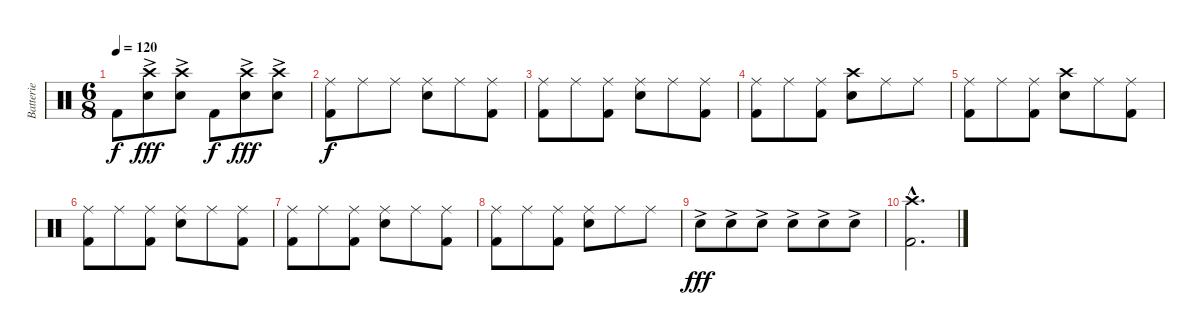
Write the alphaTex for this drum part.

\track ("Batterie" "Batterie") {instrument percussion}
\staff {score}
\articulation defaults
\ts (6 8)
\tempo 120
\clef neutral
\ks c "Kick (hit) 2".8{dy f}
("Crash high (hit)"{ac} "Snare (hit) 2").8{dy fff} ("Crash high (hit)"{ac} "Snare (hit) 2").8 "Kick (hit) 2".8{dy f} ("Crash high (hit)"{ac} "Snare (hit) 2").8{dy fff} ("Crash high (hit)"{ac} "Snare (hit) 2").8 |
("Ride (middle)" "Kick (hit) 2").8{dy f} "Ride (middle)".8 "Ride (middle)".8 ("Ride (middle)" "Snare (hit) 2").8 "Ride (middle)".8 ("Ride (middle)" "Kick (hit) 2").8 |
("Ride (middle)" "Kick (hit) 2").8 "Ride (middle)".8 ("Ride (middle)" "Kick (hit) 2").8 ("Ride (middle)" "Snare (hit) 2").8 "Ride (middle)".8 ("Ride (middle)" "Kick (hit) 2").8 |
("Ride (middle)" "Kick (hit) 2").8 "Ride (middle)".8 ("Ride (middle)" "Kick (hit) 2").8 ("Crash high (hit)" "Snare (hit) 2").8 "Ride (middle)".8 "Ride (middle)".8 |
("Ride (middle)" "Kick (hit) 2").8 "Ride (middle)".8 ("Ride (middle)" "Kick (hit) 2").8 ("Crash high (hit)" "Snare (hit) 2").8 "Ride (middle)".8 ("Ride (middle)" "Kick (hit) 2").8 |
("Ride (middle)" "Kick (hit) 2").8 "Ride (middle)".8 ("Ride (middle)" "Kick (hit) 2").8 ("Ride (middle)" "Snare (hit) 2").8 "Ride (middle)".8 ("Ride (middle)" "Kick (hit) 2").8 |
("Ride (middle)" "Kick (hit) 2").8 "Ride (middle)".8 ("Ride (middle)" "Kick (hit) 2").8 ("Ride (middle)" "Snare (hit) 2").8 "Ride (middle)".8 ("Ride (middle)" "Kick (hit) 2").8 |
("Ride (middle)" "Kick (hit) 2").8 "Ride (middle)".8 ("Ride (middle)" "Kick (hit) 2").8 ("Ride (middle)" "Snare (hit) 2").8 "Ride (middle)".8 "Ride (middle)".8 |
"Snare (hit) 2"{ac}.8{dy fff} "Snare (hit) 2"{ac}.8 "Snare (hit) 2"{ac}.8 "Snare (hit) 2"{ac}.8 "Snare (hit) 2"{ac}.8 "Snare (hit) 2"{ac}.8 |
("Crash high (hit)"{hac} "Kick (hit) 2"{hac}).2{d}
